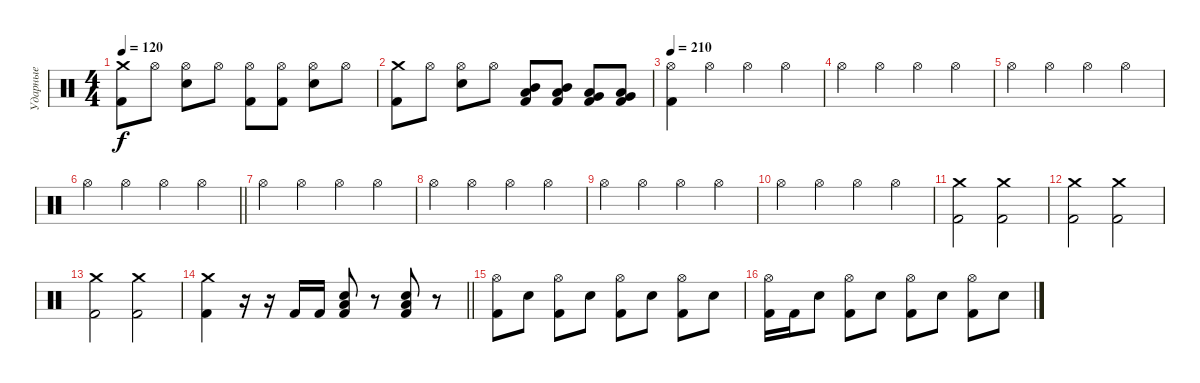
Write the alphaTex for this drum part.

\track ("Ударные" "Ударные") {instrument percussion}
\staff {score}
\articulation defaults
\ts (4 4)
\tempo 120
\clef neutral
\ks c
("Crash medium (hit)" "Kick (hit) 2").8{dy f} "Hi-Hat (open)".8 ("Hi-Hat (open)" "Snare (hit) 2").8 "Hi-Hat (open)".8 ("Hi-Hat (open)" "Kick (hit) 2").8 ("Hi-Hat (open)" "Kick (hit) 2").8 ("Hi-Hat (open)" "Snare (hit) 2").8 "Hi-Hat (open)".8 |
("Crash medium (hit)" "Kick (hit) 2").8 "Hi-Hat (open)".8 ("Hi-Hat (open)" "Snare (hit) 2").8 "Hi-Hat (open)".8 ("Low Tom (hit)" "Mid Tom (hit)" "Kick (hit) 2").8 ("Low Tom (hit)" "Mid Tom (hit)" "Kick (hit) 2").8 ("Low Floor Tom (hit)" "Very Low Tom (hit)" "Kick (hit) 2").8 ("Low Floor Tom (hit)" "Very Low Tom (hit)" "Kick (hit) 2").8 |
\tempo 210
("Hi-Hat (open)" "Kick (hit) 2").4 "Hi-Hat (open)".4 "Hi-Hat (open)".4 "Hi-Hat (open)".4 |
"Hi-Hat (open)".4 "Hi-Hat (open)".4 "Hi-Hat (open)".4 "Hi-Hat (open)".4 |
"Hi-Hat (open)".4 "Hi-Hat (open)".4 "Hi-Hat (open)".4 "Hi-Hat (open)".4 |
\barLineRight lightlight "Hi-Hat (open)".4 "Hi-Hat (open)".4 "Hi-Hat (open)".4 "Hi-Hat (open)".4
|
"Hi-Hat (open)".4 "Hi-Hat (open)".4 "Hi-Hat (open)".4 "Hi-Hat (open)".4 |
"Hi-Hat (open)".4 "Hi-Hat (open)".4 "Hi-Hat (open)".4 "Hi-Hat (open)".4 |
"Hi-Hat (open)".4 "Hi-Hat (open)".4 "Hi-Hat (open)".4 "Hi-Hat (open)".4 |
"Hi-Hat (open)".4 "Hi-Hat (open)".4 "Hi-Hat (open)".4 "Hi-Hat (open)".4 |
("Crash medium (hit)" "Kick (hit) 2").2 ("Crash medium (hit)" "Kick (hit) 2").2 |
("Crash medium (hit)" "Kick (hit) 2").2 ("Crash medium (hit)" "Kick (hit) 2").2 |
("Crash medium (hit)" "Kick (hit) 2").2 ("Crash medium (hit)" "Kick (hit) 2").2 |
\barLineRight lightlight
("Crash medium (hit)" "Kick (hit) 2").4 r.16 r.16 "Kick (hit) 2".16 "Kick (hit) 2".16 ("Low Tom (hit)" "Snare (hit) 2" "Kick (hit) 2").8 r.8 ("Low Tom (hit)" "Snare (hit) 2" "Kick (hit) 2").8 r.8 |
("Hi-Hat (open)" "Kick (hit) 2").8 "Snare (hit) 2".8 ("Hi-Hat (open)" "Kick (hit) 2").8 "Snare (hit) 2".8 ("Hi-Hat (open)" "Kick (hit) 2").8 "Snare (hit) 2".8 ("Hi-Hat (open)" "Kick (hit) 2").8 "Snare (hit) 2".8 |
("Hi-Hat (open)" "Kick (hit) 2").16 "Kick (hit) 2".16 "Snare (hit) 2".8 ("Hi-Hat (open)" "Kick (hit) 2").8 "Snare (hit) 2".8 ("Hi-Hat (open)" "Kick (hit) 2").8 "Snare (hit) 2".8 ("Hi-Hat (open)" "Kick (hit) 2").8 "Snare (hit) 2".8
